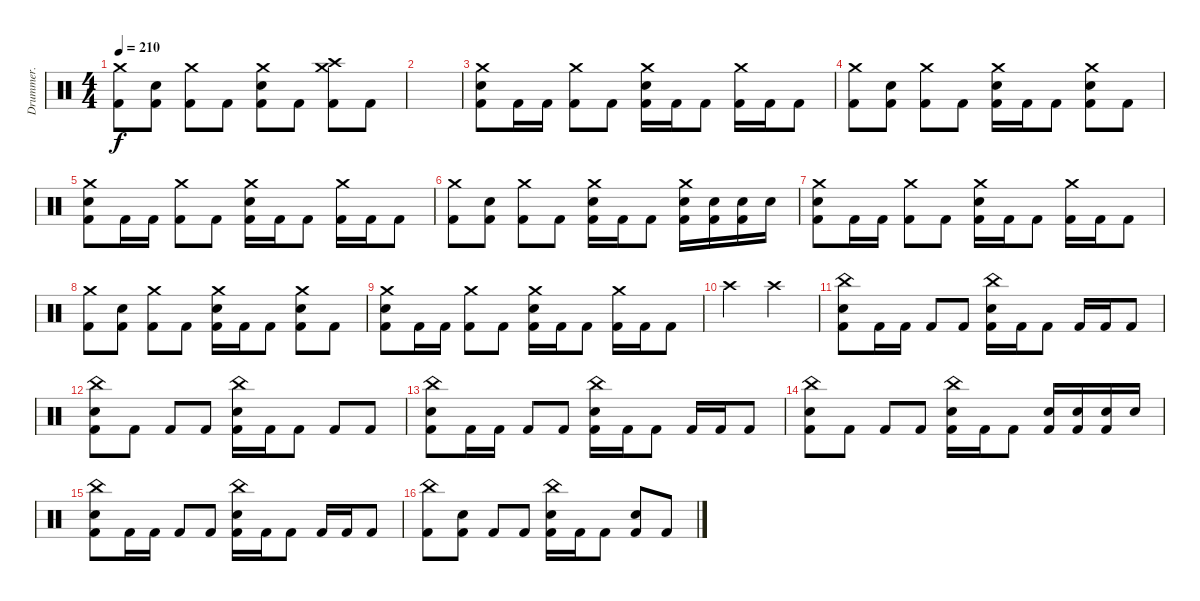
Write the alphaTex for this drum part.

\track ("Drummer." "Drummer.") {instrument percussion}
\staff {score}
\articulation defaults
\ts (4 4)
\tempo 210
\clef neutral
\ks c
("Crash medium (hit)" "Kick (hit) 2").8{dy f} ("Snare (hit) 2" "Kick (hit) 2").8 ("Crash medium (hit)" "Kick (hit) 2").8 "Kick (hit) 2".8 ("Crash medium (hit)" "Snare (hit) 2" "Kick (hit) 2").8 "Kick (hit) 2".8 ("Crash medium (hit)" "Crash high (hit)" "Kick (hit) 2").8 "Kick (hit) 2".8 |
|
("Crash medium (hit)" "Snare (hit) 2" "Kick (hit) 2").8 "Kick (hit) 2".16 "Kick (hit) 2".16 ("Crash medium (hit)" "Kick (hit) 2").8 "Kick (hit) 2".8 ("Crash medium (hit)" "Snare (hit) 2" "Kick (hit) 2").16 "Kick (hit) 2".16 "Kick (hit) 2".8 ("Crash medium (hit)" "Kick (hit) 2").16 "Kick (hit) 2".16 "Kick (hit) 2".8 |
("Crash medium (hit)" "Kick (hit) 2").8 ("Snare (hit) 2" "Kick (hit) 2").8 ("Crash medium (hit)" "Kick (hit) 2").8 "Kick (hit) 2".8 ("Crash medium (hit)" "Snare (hit) 2" "Kick (hit) 2").16 "Kick (hit) 2".16 "Kick (hit) 2".8 ("Crash medium (hit)" "Snare (hit) 2" "Kick (hit) 2").8 "Kick (hit) 2".8 |
("Crash medium (hit)" "Snare (hit) 2" "Kick (hit) 2").8 "Kick (hit) 2".16 "Kick (hit) 2".16 ("Crash medium (hit)" "Kick (hit) 2").8 "Kick (hit) 2".8 ("Crash medium (hit)" "Snare (hit) 2" "Kick (hit) 2").16 "Kick (hit) 2".16 "Kick (hit) 2".8 ("Crash medium (hit)" "Kick (hit) 2").16 "Kick (hit) 2".16 "Kick (hit) 2".8 |
("Crash medium (hit)" "Kick (hit) 2").8 ("Snare (hit) 2" "Kick (hit) 2").8 ("Crash medium (hit)" "Kick (hit) 2").8 "Kick (hit) 2".8 ("Crash medium (hit)" "Snare (hit) 2" "Kick (hit) 2").16 "Kick (hit) 2".16 "Kick (hit) 2".8 ("Crash medium (hit)" "Snare (hit) 2" "Kick (hit) 2").16 ("Snare (hit) 2" "Kick (hit) 2").16 ("Snare (hit) 2" "Kick (hit) 2").16 "Snare (hit) 2".16 |
("Crash medium (hit)" "Snare (hit) 2" "Kick (hit) 2").8 "Kick (hit) 2".16 "Kick (hit) 2".16 ("Crash medium (hit)" "Kick (hit) 2").8 "Kick (hit) 2".8 ("Crash medium (hit)" "Snare (hit) 2" "Kick (hit) 2").16 "Kick (hit) 2".16 "Kick (hit) 2".8 ("Crash medium (hit)" "Kick (hit) 2").16 "Kick (hit) 2".16 "Kick (hit) 2".8 |
("Crash medium (hit)" "Kick (hit) 2").8 ("Snare (hit) 2" "Kick (hit) 2").8 ("Crash medium (hit)" "Kick (hit) 2").8 "Kick (hit) 2".8 ("Crash medium (hit)" "Snare (hit) 2" "Kick (hit) 2").16 "Kick (hit) 2".16 "Kick (hit) 2".8 ("Crash medium (hit)" "Snare (hit) 2" "Kick (hit) 2").8 "Kick (hit) 2".8 |
("Crash medium (hit)" "Snare (hit) 2" "Kick (hit) 2").8 "Kick (hit) 2".16 "Kick (hit) 2".16 ("Crash medium (hit)" "Kick (hit) 2").8 "Kick (hit) 2".8 ("Crash medium (hit)" "Snare (hit) 2" "Kick (hit) 2").16 "Kick (hit) 2".16 "Kick (hit) 2".8 ("Crash medium (hit)" "Kick (hit) 2").16 "Kick (hit) 2".16 "Kick (hit) 2".8 |
"Crash high (hit)".2 "Crash high (hit)".2 |
("China (hit)" "Snare (hit) 2" "Kick (hit) 2").8 "Kick (hit) 2".16 "Kick (hit) 2".16 "Kick (hit) 2".8 "Kick (hit) 2".8 ("China (hit)" "Snare (hit) 2" "Kick (hit) 2").16 "Kick (hit) 2".16 "Kick (hit) 2".8 "Kick (hit) 2".16 "Kick (hit) 2".16 "Kick (hit) 2".8 |
("China (hit)" "Snare (hit) 2" "Kick (hit) 2").8 "Kick (hit) 2".8 "Kick (hit) 2".8 "Kick (hit) 2".8 ("China (hit)" "Snare (hit) 2" "Kick (hit) 2").16 "Kick (hit) 2".16 "Kick (hit) 2".8 "Kick (hit) 2".8 "Kick (hit) 2".8 |
("China (hit)" "Snare (hit) 2" "Kick (hit) 2").8 "Kick (hit) 2".16 "Kick (hit) 2".16 "Kick (hit) 2".8 "Kick (hit) 2".8 ("China (hit)" "Snare (hit) 2" "Kick (hit) 2").16 "Kick (hit) 2".16 "Kick (hit) 2".8 "Kick (hit) 2".16 "Kick (hit) 2".16 "Kick (hit) 2".8 |
("China (hit)" "Snare (hit) 2" "Kick (hit) 2").8 "Kick (hit) 2".8 "Kick (hit) 2".8 "Kick (hit) 2".8 ("China (hit)" "Snare (hit) 2" "Kick (hit) 2").16 "Kick (hit) 2".16 "Kick (hit) 2".8 ("Snare (hit) 2" "Kick (hit) 2").16 ("Snare (hit) 2" "Kick (hit) 2").16 ("Snare (hit) 2" "Kick (hit) 2").16 "Snare (hit) 2".16 |
("China (hit)" "Snare (hit) 2" "Kick (hit) 2").8 "Kick (hit) 2".16 "Kick (hit) 2".16 "Kick (hit) 2".8 "Kick (hit) 2".8 ("China (hit)" "Snare (hit) 2" "Kick (hit) 2").16 "Kick (hit) 2".16 "Kick (hit) 2".8 "Kick (hit) 2".16 "Kick (hit) 2".16 "Kick (hit) 2".8 |
("China (hit)" "Kick (hit) 2").8 ("Snare (hit) 2" "Kick (hit) 2").8 "Kick (hit) 2".8 "Kick (hit) 2".8 ("China (hit)" "Snare (hit) 2" "Kick (hit) 2").16 "Kick (hit) 2".16 "Kick (hit) 2".8 ("Snare (hit) 2" "Kick (hit) 2").8 "Kick (hit) 2".8
